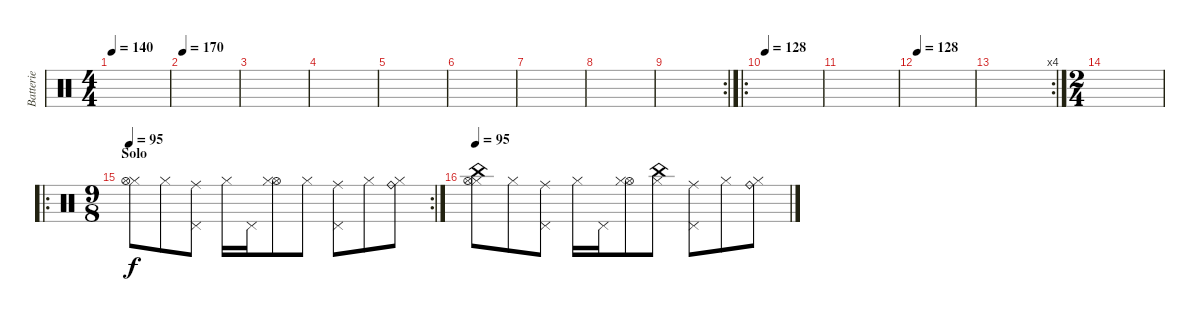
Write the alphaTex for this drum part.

\track ("Batterie" "Batterie") {instrument percussion}
\staff {score}
\articulation defaults
\ts (4 4)
\tempo 140
\clef neutral
\ks c
|
\tempo 170
|
|
|
|
|
|
|
\rc 2
|
\ro
\tempo 128
|
|
\tempo 128
|
\rc 4
|
\ts (2 4)
|
\ro
\rc 2
\ts (9 8)
\section ("" "Solo")
\tempo 95
("Hi-Hat (closed)" "Hi-Hat (open)").8{volume 12 balance 6} "Hi-Hat (closed)".8 ("Ride (middle)" "Pedal Hi-Hat (hit)").8 "Hi-Hat (closed)".16 "Pedal Hi-Hat (hit)".16 ("Hi-Hat (open)" "Hi-Hat (closed)").8 "Hi-Hat (closed)".8 ("Ride (middle)" "Pedal Hi-Hat (hit)").8 "Hi-Hat (closed)".8 ("Ride (bell)" "Hi-Hat (closed)").8 |
\tempo 95
("China (hit)" "Hi-Hat (closed)" "Hi-Hat (open)").8 "Hi-Hat (closed)".8 ("Ride (middle)" "Pedal Hi-Hat (hit)").8 "Hi-Hat (closed)".16 "Pedal Hi-Hat (hit)".16 ("Hi-Hat (open)" "Hi-Hat (closed)").8 ("China (hit)" "Hi-Hat (closed)").8 ("Ride (middle)" "Pedal Hi-Hat (hit)").8 "Hi-Hat (closed)".8 ("Ride (bell)" "Hi-Hat (closed)").8
